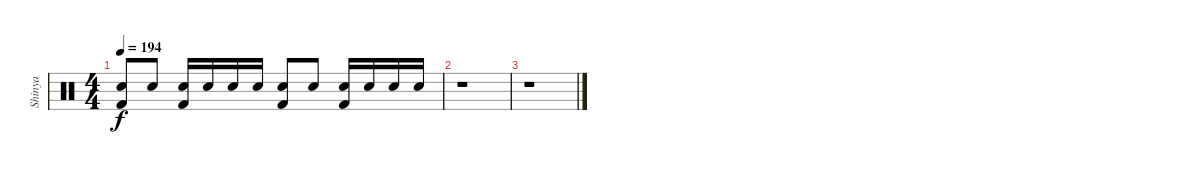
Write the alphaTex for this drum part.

\track ("Shinya" "Shinya") {instrument percussion}
\staff {score}
\articulation defaults
\ts (4 4)
\tempo 194
\clef neutral
\ks c
("Snare (hit) 2" "Kick (hit) 2").8{dy f} "Snare (hit) 2".8 ("Snare (hit) 2" "Kick (hit) 2").16 "Snare (hit) 2".16 "Snare (hit) 2".16 "Snare (hit) 2".16 ("Snare (hit) 2" "Kick (hit) 2").8 "Snare (hit) 2".8 ("Snare (hit) 2" "Kick (hit) 2").16 "Snare (hit) 2".16 "Snare (hit) 2".16 "Snare (hit) 2".16 |
r.1 |
r.1
